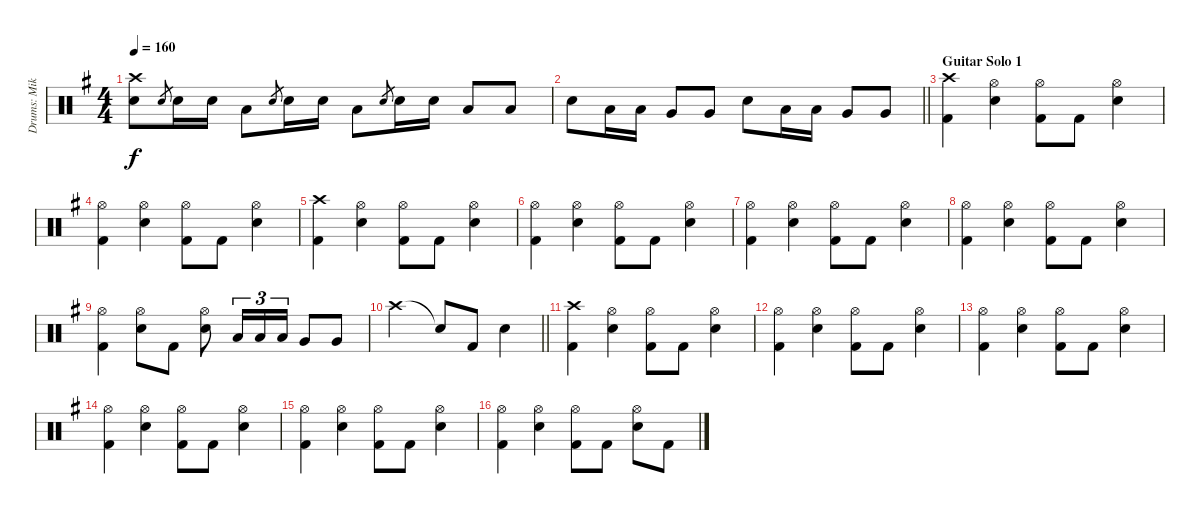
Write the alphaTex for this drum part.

\track ("Drums: Mikko Korsbäck" "Drums: Mik") {instrument percussion}
\staff {score}
\articulation defaults
\ts (4 4)
\tempo 160
\clef neutral
\ks eminor
("Crash high (hit)" "Electric Snare (hit)").8{dy f} "Electric Snare (hit)".8{gr} "Electric Snare (hit)".16 "Electric Snare (hit)".16 "Low Tom (hit)".8 "Electric Snare (hit)".8{gr} "Electric Snare (hit)".16 "Electric Snare (hit)".16 "Low Tom (hit)".8 "Electric Snare (hit)".8{gr} "Electric Snare (hit)".16 "Electric Snare (hit)".16 "Low Tom (hit)".8 "Low Tom (hit)".8 |
\barLineRight lightlight "Electric Snare (hit)".8 "Low Tom (hit)".16 "Low Tom (hit)".16 "Very Low Tom (hit)".8 "Very Low Tom (hit)".8 "Electric Snare (hit)".8 "Low Tom (hit)".16 "Low Tom (hit)".16 "Very Low Tom (hit)".8 "Very Low Tom (hit)".8
|
\section ("" "Guitar Solo 1")
("Crash high (hit)" "Kick (hit) 2").4 ("Hi-Hat (open)" "Electric Snare (hit)").4 ("Hi-Hat (open)" "Kick (hit) 2").8 "Kick (hit) 2".8 ("Hi-Hat (open)" "Electric Snare (hit)").4 |
("Hi-Hat (open)" "Kick (hit) 2").4 ("Hi-Hat (open)" "Electric Snare (hit)").4 ("Hi-Hat (open)" "Kick (hit) 2").8 "Kick (hit) 2".8 ("Hi-Hat (open)" "Electric Snare (hit)").4 |
("Crash high (hit)" "Kick (hit) 2").4 ("Hi-Hat (open)" "Electric Snare (hit)").4 ("Hi-Hat (open)" "Kick (hit) 2").8 "Kick (hit) 2".8 ("Hi-Hat (open)" "Electric Snare (hit)").4 |
("Hi-Hat (open)" "Kick (hit) 2").4 ("Hi-Hat (open)" "Electric Snare (hit)").4 ("Hi-Hat (open)" "Kick (hit) 2").8 "Kick (hit) 2".8 ("Hi-Hat (open)" "Electric Snare (hit)").4 |
("Hi-Hat (open)" "Kick (hit) 2").4 ("Hi-Hat (open)" "Electric Snare (hit)").4 ("Hi-Hat (open)" "Kick (hit) 2").8 "Kick (hit) 2".8 ("Hi-Hat (open)" "Electric Snare (hit)").4 |
("Hi-Hat (open)" "Kick (hit) 2").4 ("Hi-Hat (open)" "Electric Snare (hit)").4 ("Hi-Hat (open)" "Kick (hit) 2").8 "Kick (hit) 2".8 ("Hi-Hat (open)" "Electric Snare (hit)").4 |
("Hi-Hat (open)" "Kick (hit) 2").4 ("Hi-Hat (open)" "Electric Snare (hit)").8 "Kick (hit) 2".8 ("Hi-Hat (open)" "Electric Snare (hit)").8 "Low Tom (hit)".16{tu (3 2)} "Low Tom (hit)".16{tu (3 2)} "Low Tom (hit)".16{tu (3 2)} "Very Low Tom (hit)".8 "Very Low Tom (hit)".8 |
\barLineRight lightlight "Crash high (hit)".2 "Snare (hit)"{t}.8 "Kick (hit) 2".8 "Electric Snare (hit)".4
|
("Crash high (hit)" "Kick (hit) 2").4 ("Hi-Hat (open)" "Electric Snare (hit)").4 ("Hi-Hat (open)" "Kick (hit) 2").8 "Kick (hit) 2".8 ("Hi-Hat (open)" "Electric Snare (hit)").4 |
("Hi-Hat (open)" "Kick (hit) 2").4 ("Hi-Hat (open)" "Electric Snare (hit)").4 ("Hi-Hat (open)" "Kick (hit) 2").8 "Kick (hit) 2".8 ("Hi-Hat (open)" "Electric Snare (hit)").4 |
("Hi-Hat (open)" "Kick (hit) 2").4 ("Hi-Hat (open)" "Electric Snare (hit)").4 ("Hi-Hat (open)" "Kick (hit) 2").8 "Kick (hit) 2".8 ("Hi-Hat (open)" "Electric Snare (hit)").4 |
("Hi-Hat (open)" "Kick (hit) 2").4 ("Hi-Hat (open)" "Electric Snare (hit)").4 ("Hi-Hat (open)" "Kick (hit) 2").8 "Kick (hit) 2".8 ("Hi-Hat (open)" "Electric Snare (hit)").4 |
("Hi-Hat (open)" "Kick (hit) 2").4 ("Hi-Hat (open)" "Electric Snare (hit)").4 ("Hi-Hat (open)" "Kick (hit) 2").8 "Kick (hit) 2".8 ("Hi-Hat (open)" "Electric Snare (hit)").4 |
("Hi-Hat (open)" "Kick (hit) 2").4 ("Hi-Hat (open)" "Electric Snare (hit)").4 ("Hi-Hat (open)" "Kick (hit) 2").8 "Kick (hit) 2".8 ("Hi-Hat (open)" "Electric Snare (hit)").8 "Kick (hit) 2".8
